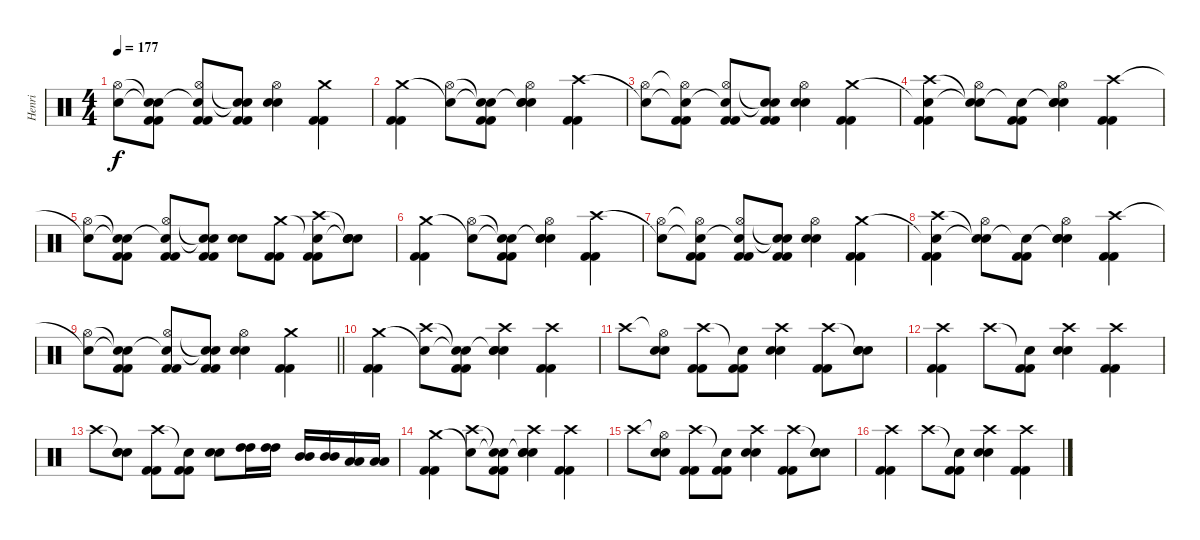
\track ("Henri" "Henri") {instrument percussion}
\staff {score}
\articulation defaults
\ts (4 4)
\tempo 177
\clef neutral
\ks c
("Snare (hit)"{t} "Hi-Hat (open)").8{dy f} ("Snare (hit)"{t} "Snare (hit)"{t} "Kick (hit) 2" "Kick (hit) 2").8 ("Snare (hit)"{t} "Hi-Hat (open)" "Kick (hit) 2" "Kick (hit) 2").8 ("Snare (hit)"{t} "Snare (hit)"{t} "Kick (hit) 2" "Kick (hit) 2").8 ("Hi-Hat (open)" "Snare (hit) 2" "Snare (hit) 2").4 ("Crash medium (hit)" "Kick (hit) 2" "Kick (hit) 2").4 |
("Crash medium (hit)" "Kick (hit) 2" "Kick (hit) 2").4 ("Snare (hit)"{t} "Hi-Hat (open)").8 ("Snare (hit)"{t} "Snare (hit)"{t} "Kick (hit) 2" "Kick (hit) 2").8 ("Snare (hit)"{t} "Hi-Hat (open)" "Snare (hit) 2" "Snare (hit) 2").4 ("Crash high (hit)" "Kick (hit) 2" "Kick (hit) 2").4 |
("Snare (hit)"{t} "Hi-Hat (open)").8 ("Snare (hit)"{t} "Hi-Hat (open)"{t} "Kick (hit) 2" "Kick (hit) 2").8 ("Snare (hit)"{t} "Hi-Hat (open)" "Kick (hit) 2" "Kick (hit) 2").8 ("Snare (hit)"{t} "Snare (hit)"{t} "Kick (hit) 2" "Kick (hit) 2").8 ("Hi-Hat (open)" "Snare (hit) 2" "Snare (hit) 2").4 ("Crash medium (hit)" "Kick (hit) 2" "Kick (hit) 2").4 |
("Snare (hit)"{t} "Crash high (hit)" "Kick (hit) 2" "Kick (hit) 2").4 ("Snare (hit)"{t} "Snare (hit)"{t} "Hi-Hat (open)").8 ("Snare (hit)"{t} "Kick (hit) 2" "Kick (hit) 2").8 ("Snare (hit)"{t} "Hi-Hat (open)" "Snare (hit) 2" "Snare (hit) 2").4 ("Crash high (hit)" "Kick (hit) 2" "Kick (hit) 2").4 |
("Snare (hit)"{t} "Hi-Hat (open)").8 ("Snare (hit)"{t} "Snare (hit)"{t} "Kick (hit) 2" "Kick (hit) 2").8 ("Snare (hit)"{t} "Hi-Hat (open)" "Kick (hit) 2" "Kick (hit) 2").8 ("Snare (hit)"{t} "Snare (hit)"{t} "Kick (hit) 2" "Kick (hit) 2").8 ("Snare (hit) 2" "Snare (hit) 2").8 ("Crash medium (hit)" "Kick (hit) 2" "Kick (hit) 2").8 ("Snare (hit)"{t} "Crash high (hit)" "Kick (hit) 2" "Kick (hit) 2").8 ("Snare (hit)"{t} "Snare (hit)"{t} "Snare (hit) 2" "Snare (hit) 2").8 |
("Crash medium (hit)" "Kick (hit) 2" "Kick (hit) 2").4 ("Snare (hit)"{t} "Hi-Hat (open)").8 ("Snare (hit)"{t} "Snare (hit)"{t} "Kick (hit) 2" "Kick (hit) 2").8 ("Snare (hit)"{t} "Hi-Hat (open)" "Snare (hit) 2" "Snare (hit) 2").4 ("Crash high (hit)" "Kick (hit) 2" "Kick (hit) 2").4 |
("Snare (hit)"{t} "Hi-Hat (open)").8 ("Snare (hit)"{t} "Hi-Hat (open)"{t} "Kick (hit) 2" "Kick (hit) 2").8 ("Snare (hit)"{t} "Hi-Hat (open)" "Kick (hit) 2" "Kick (hit) 2").8 ("Snare (hit)"{t} "Snare (hit)"{t} "Kick (hit) 2" "Kick (hit) 2").8 ("Hi-Hat (open)" "Snare (hit) 2" "Snare (hit) 2").4 ("Crash medium (hit)" "Kick (hit) 2" "Kick (hit) 2").4 |
("Snare (hit)"{t} "Crash high (hit)" "Kick (hit) 2" "Kick (hit) 2").4 ("Snare (hit)"{t} "Snare (hit)"{t} "Hi-Hat (open)").8 ("Snare (hit)"{t} "Kick (hit) 2" "Kick (hit) 2").8 ("Snare (hit)"{t} "Hi-Hat (open)" "Snare (hit) 2" "Snare (hit) 2").4 ("Crash high (hit)" "Kick (hit) 2" "Kick (hit) 2").4 |
\barLineRight lightlight
("Snare (hit)"{t} "Hi-Hat (open)").8 ("Snare (hit)"{t} "Snare (hit)"{t} "Kick (hit) 2" "Kick (hit) 2").8 ("Snare (hit)"{t} "Hi-Hat (open)" "Kick (hit) 2" "Kick (hit) 2").8 ("Snare (hit)"{t} "Snare (hit)"{t} "Kick (hit) 2" "Kick (hit) 2").8 ("Hi-Hat (open)" "Snare (hit) 2" "Snare (hit) 2").4 ("Crash medium (hit)" "Kick (hit) 2" "Kick (hit) 2").4 |
("Crash medium (hit)" "Kick (hit) 2" "Kick (hit) 2").4 ("Snare (hit)"{t} "Crash high (hit)").8 ("Snare (hit)"{t} "Snare (hit)"{t} "Kick (hit) 2" "Kick (hit) 2").8 ("Snare (hit)"{t} "Crash high (hit)" "Snare (hit) 2" "Snare (hit) 2").4 ("Crash high (hit)" "Kick (hit) 2" "Kick (hit) 2").4 |
"Crash high (hit)".8 ("Hi-Hat (open)"{t} "Snare (hit) 2" "Snare (hit) 2").8 ("Crash high (hit)" "Kick (hit) 2" "Kick (hit) 2").8 ("Snare (hit)"{t} "Kick (hit) 2" "Kick (hit) 2").8 ("Crash high (hit)" "Snare (hit) 2" "Snare (hit) 2").4 ("Crash high (hit)" "Kick (hit) 2" "Kick (hit) 2").8 ("Snare (hit)"{t} "Snare (hit) 2" "Snare (hit) 2").8 |
("Crash high (hit)" "Kick (hit) 2" "Kick (hit) 2").4 "Crash high (hit)".8 ("Snare (hit)"{t} "Kick (hit) 2" "Kick (hit) 2").8 ("Crash high (hit)" "Snare (hit) 2" "Snare (hit) 2").4 ("Crash high (hit)" "Kick (hit) 2" "Kick (hit) 2").4 |
"Crash high (hit)".8 ("Snare (hit)"{t} "Snare (hit) 2" "Snare (hit) 2").8 ("Crash high (hit)" "Kick (hit) 2" "Kick (hit) 2").8 ("Snare (hit)"{t} "Kick (hit) 2" "Kick (hit) 2").8 ("Snare (hit) 2" "Snare (hit) 2").8 ("High Tom (hit)" "High Tom (hit)").16 ("High Tom (hit)" "High Tom (hit)").16 ("Mid Tom (hit)" "Mid Tom (hit)").16 ("Mid Tom (hit)" "Mid Tom (hit)").16 ("Low Tom (hit)" "Low Tom (hit)").16 ("Low Tom (hit)" "Low Tom (hit)").16 |
("Crash medium (hit)" "Kick (hit) 2" "Kick (hit) 2").4 ("Snare (hit)"{t} "Crash high (hit)").8 ("Snare (hit)"{t} "Snare (hit)"{t} "Kick (hit) 2" "Kick (hit) 2").8 ("Snare (hit)"{t} "Crash high (hit)" "Snare (hit) 2" "Snare (hit) 2").4 ("Crash high (hit)" "Kick (hit) 2" "Kick (hit) 2").4 |
"Crash high (hit)".8 ("Hi-Hat (open)"{t} "Snare (hit) 2" "Snare (hit) 2").8 ("Crash high (hit)" "Kick (hit) 2" "Kick (hit) 2").8 ("Snare (hit)"{t} "Kick (hit) 2" "Kick (hit) 2").8 ("Crash high (hit)" "Snare (hit) 2" "Snare (hit) 2").4 ("Crash high (hit)" "Kick (hit) 2" "Kick (hit) 2").8 ("Snare (hit)"{t} "Snare (hit) 2" "Snare (hit) 2").8 |
("Crash high (hit)" "Kick (hit) 2" "Kick (hit) 2").4 "Crash high (hit)".8 ("Snare (hit)"{t} "Kick (hit) 2" "Kick (hit) 2").8 ("Crash high (hit)" "Snare (hit) 2" "Snare (hit) 2").4 ("Crash high (hit)" "Kick (hit) 2" "Kick (hit) 2").4
